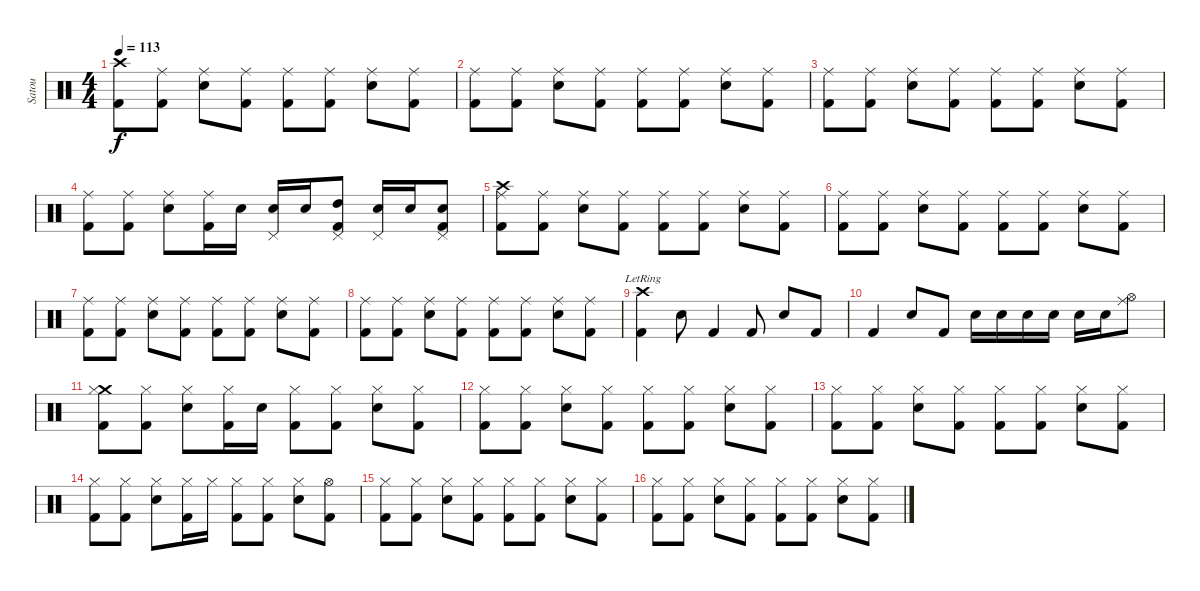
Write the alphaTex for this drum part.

\track ("Satou" "Satou") {instrument percussion}
\staff {score}
\articulation defaults
\ts (4 4)
\tempo 113
\clef neutral
\ks c
("Crash high (hit)" "Kick (hit) 2").8{dy f} ("Ride (middle)" "Kick (hit) 2").8 ("Ride (middle)" "Electric Snare (hit)").8 ("Ride (middle)" "Kick (hit) 2").8 ("Ride (middle)" "Kick (hit) 2").8 ("Ride (middle)" "Kick (hit) 2").8 ("Ride (middle)" "Electric Snare (hit)").8 ("Ride (middle)" "Kick (hit) 2").8 |
("Ride (middle)" "Kick (hit) 2").8 ("Ride (middle)" "Kick (hit) 2").8 ("Ride (middle)" "Electric Snare (hit)").8 ("Ride (middle)" "Kick (hit) 2").8 ("Ride (middle)" "Kick (hit) 2").8 ("Ride (middle)" "Kick (hit) 2").8 ("Ride (middle)" "Electric Snare (hit)").8 ("Ride (middle)" "Kick (hit) 2").8 |
("Ride (middle)" "Kick (hit) 2").8 ("Ride (middle)" "Kick (hit) 2").8 ("Ride (middle)" "Electric Snare (hit)").8 ("Ride (middle)" "Kick (hit) 2").8 ("Ride (middle)" "Kick (hit) 2").8 ("Ride (middle)" "Kick (hit) 2").8 ("Ride (middle)" "Electric Snare (hit)").8 ("Ride (middle)" "Kick (hit) 2").8 |
("Ride (middle)" "Kick (hit) 2").8 ("Ride (middle)" "Kick (hit) 2").8 ("Ride (middle)" "Electric Snare (hit)").8 ("Ride (middle)" "Kick (hit) 2").16 "Electric Snare (hit)".16 ("Pedal Hi-Hat (hit)" "Electric Snare (hit)").16 "Electric Snare (hit)".16 ("Pedal Hi-Hat (hit)" "High Tom (hit)" "Kick (hit) 2").8 ("Pedal Hi-Hat (hit)" "Electric Snare (hit)").16 "Electric Snare (hit)".16 ("Pedal Hi-Hat (hit)" "Electric Snare (hit)" "Kick (hit) 2").8 |
("Crash high (hit)" "Ride (middle)" "Kick (hit) 2").8 ("Ride (middle)" "Kick (hit) 2").8 ("Ride (middle)" "Electric Snare (hit)").8 ("Ride (middle)" "Kick (hit) 2").8 ("Ride (middle)" "Kick (hit) 2").8 ("Ride (middle)" "Kick (hit) 2").8 ("Ride (middle)" "Electric Snare (hit)").8 ("Ride (middle)" "Kick (hit) 2").8 |
("Ride (middle)" "Kick (hit) 2").8 ("Ride (middle)" "Kick (hit) 2").8 ("Ride (middle)" "Electric Snare (hit)").8 ("Ride (middle)" "Kick (hit) 2").8 ("Ride (middle)" "Kick (hit) 2").8 ("Ride (middle)" "Kick (hit) 2").8 ("Ride (middle)" "Electric Snare (hit)").8 ("Ride (middle)" "Kick (hit) 2").8 |
("Ride (middle)" "Kick (hit) 2").8 ("Ride (middle)" "Kick (hit) 2").8 ("Ride (middle)" "Electric Snare (hit)").8 ("Ride (middle)" "Kick (hit) 2").8 ("Ride (middle)" "Kick (hit) 2").8 ("Ride (middle)" "Kick (hit) 2").8 ("Ride (middle)" "Electric Snare (hit)").8 ("Ride (middle)" "Kick (hit) 2").8 |
("Ride (middle)" "Kick (hit) 2").8 ("Ride (middle)" "Kick (hit) 2").8 ("Ride (middle)" "Electric Snare (hit)").8 ("Ride (middle)" "Kick (hit) 2").8 ("Ride (middle)" "Kick (hit) 2").8 ("Ride (middle)" "Kick (hit) 2").8 ("Ride (middle)" "Electric Snare (hit)").8 ("Ride (middle)" "Kick (hit) 2").8 |
("Crash high (hit)"{lr} "Kick (hit) 2").4 "Electric Snare (hit)".8 "Kick (hit) 2".4 "Kick (hit) 2".8 "Electric Snare (hit)".8 "Kick (hit) 2".8 |
"Kick (hit) 2".4 "Electric Snare (hit)".8 "Kick (hit) 2".8 "Electric Snare (hit)".16 "Electric Snare (hit)".16 "Electric Snare (hit)".16 "Electric Snare (hit)".16 "Electric Snare (hit)".16 "Electric Snare (hit)".16 ("Ride (middle)" "Hi-Hat (open)").8 |
("Crash medium (hit)" "Hi-Hat (closed)" "Kick (hit) 2").8 ("Hi-Hat (closed)" "Kick (hit) 2").8 ("Hi-Hat (closed)" "Electric Snare (hit)").8 ("Hi-Hat (closed)" "Kick (hit) 2").16 "Electric Snare (hit)".16 ("Hi-Hat (closed)" "Kick (hit) 2").8 ("Hi-Hat (closed)" "Kick (hit) 2").8 ("Hi-Hat (closed)" "Electric Snare (hit)").8 ("Hi-Hat (closed)" "Kick (hit) 2").8 |
("Hi-Hat (closed)" "Kick (hit) 2").8 ("Hi-Hat (closed)" "Kick (hit) 2").8 ("Hi-Hat (closed)" "Electric Snare (hit)").8 ("Hi-Hat (closed)" "Kick (hit) 2").8 ("Hi-Hat (closed)" "Kick (hit) 2").8 ("Hi-Hat (closed)" "Kick (hit) 2").8 ("Hi-Hat (closed)" "Electric Snare (hit)").8 ("Hi-Hat (closed)" "Kick (hit) 2").8 |
("Hi-Hat (closed)" "Kick (hit) 2").8 ("Hi-Hat (closed)" "Kick (hit) 2").8 ("Hi-Hat (closed)" "Electric Snare (hit)").8 ("Hi-Hat (closed)" "Kick (hit) 2").8 ("Hi-Hat (closed)" "Kick (hit) 2").8 ("Hi-Hat (closed)" "Kick (hit) 2").8 ("Hi-Hat (closed)" "Electric Snare (hit)").8 ("Hi-Hat (closed)" "Kick (hit) 2").8 |
("Hi-Hat (closed)" "Kick (hit) 2").8 ("Hi-Hat (closed)" "Kick (hit) 2").8 ("Hi-Hat (closed)" "Electric Snare (hit)").8 ("Hi-Hat (closed)" "Kick (hit) 2").16 "Hi-Hat (closed)".16 ("Hi-Hat (closed)" "Kick (hit) 2").8 ("Hi-Hat (closed)" "Kick (hit) 2").8 ("Hi-Hat (closed)" "Electric Snare (hit)").8 ("Hi-Hat (open)" "Kick (hit) 2").8 |
("Hi-Hat (closed)" "Kick (hit) 2").8 ("Hi-Hat (closed)" "Kick (hit) 2").8 ("Hi-Hat (closed)" "Electric Snare (hit)").8 ("Hi-Hat (closed)" "Kick (hit) 2").8 ("Hi-Hat (closed)" "Kick (hit) 2").8 ("Hi-Hat (closed)" "Kick (hit) 2").8 ("Hi-Hat (closed)" "Electric Snare (hit)").8 ("Hi-Hat (closed)" "Kick (hit) 2").8 |
("Hi-Hat (closed)" "Kick (hit) 2").8 ("Hi-Hat (closed)" "Kick (hit) 2").8 ("Hi-Hat (closed)" "Electric Snare (hit)").8 ("Hi-Hat (closed)" "Kick (hit) 2").8 ("Hi-Hat (closed)" "Kick (hit) 2").8 ("Hi-Hat (closed)" "Kick (hit) 2").8 ("Hi-Hat (closed)" "Electric Snare (hit)").8 ("Hi-Hat (closed)" "Kick (hit) 2").8
